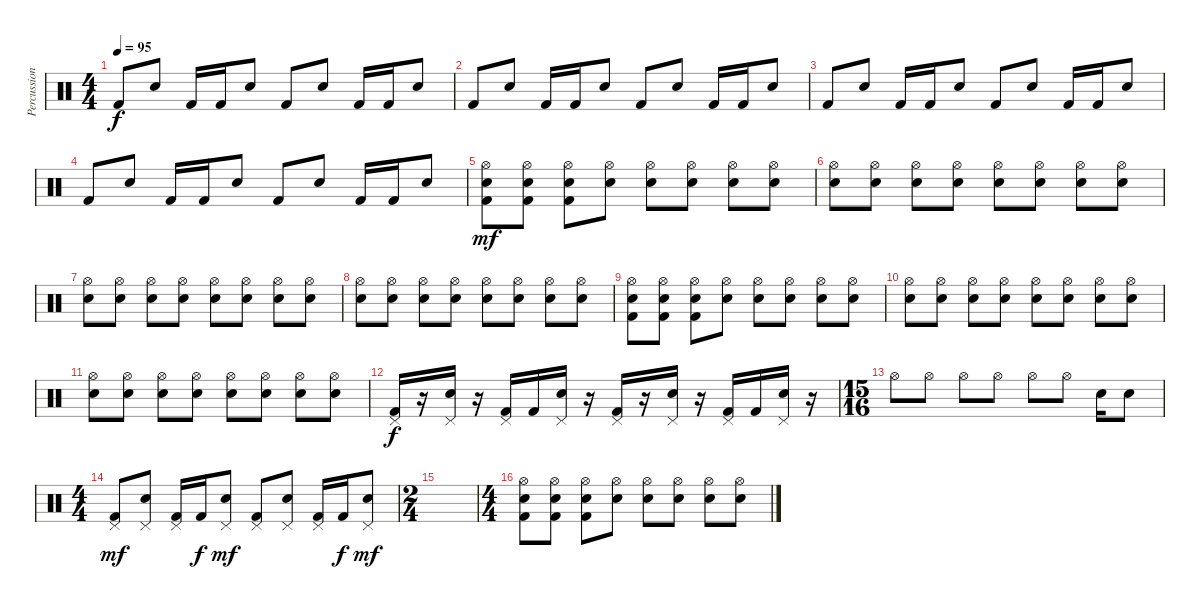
\track ("Percussion" "Percussion") {instrument percussion}
\staff {score}
\articulation defaults
\ts (4 4)
\tempo 95
\clef neutral
\ks c "Kick (hit) 2".8{dy f} "Electric Snare (hit)".8 "Kick (hit) 2".16 "Kick (hit) 2".16 "Electric Snare (hit)".8 "Kick (hit) 2".8 "Electric Snare (hit)".8 "Kick (hit) 2".16 "Kick (hit) 2".16 "Electric Snare (hit)".8
|
"Kick (hit) 2".8 "Electric Snare (hit)".8 "Kick (hit) 2".16 "Kick (hit) 2".16 "Electric Snare (hit)".8 "Kick (hit) 2".8 "Electric Snare (hit)".8 "Kick (hit) 2".16 "Kick (hit) 2".16 "Electric Snare (hit)".8 |
"Kick (hit) 2".8 "Electric Snare (hit)".8 "Kick (hit) 2".16 "Kick (hit) 2".16 "Electric Snare (hit)".8 "Kick (hit) 2".8 "Electric Snare (hit)".8 "Kick (hit) 2".16 "Kick (hit) 2".16 "Electric Snare (hit)".8 |
"Kick (hit) 2".8 "Electric Snare (hit)".8 "Kick (hit) 2".16 "Kick (hit) 2".16 "Electric Snare (hit)".8 "Kick (hit) 2".8 "Electric Snare (hit)".8 "Kick (hit) 2".16 "Kick (hit) 2".16 "Electric Snare (hit)".8 |
("Hi-Hat (open)" "Electric Snare (hit)" "Kick (hit) 2").8{dy mf} ("Hi-Hat (open)" "Electric Snare (hit)" "Kick (hit) 2").8 ("Hi-Hat (open)" "Electric Snare (hit)" "Kick (hit) 2").8 ("Hi-Hat (open)" "Electric Snare (hit)").8 ("Hi-Hat (open)" "Electric Snare (hit)").8 ("Hi-Hat (open)" "Electric Snare (hit)").8 ("Hi-Hat (open)" "Electric Snare (hit)").8 ("Hi-Hat (open)" "Electric Snare (hit)").8 |
("Hi-Hat (open)" "Electric Snare (hit)").8 ("Hi-Hat (open)" "Electric Snare (hit)").8 ("Hi-Hat (open)" "Electric Snare (hit)").8 ("Hi-Hat (open)" "Electric Snare (hit)").8 ("Hi-Hat (open)" "Electric Snare (hit)").8 ("Hi-Hat (open)" "Electric Snare (hit)").8 ("Hi-Hat (open)" "Electric Snare (hit)").8 ("Hi-Hat (open)" "Electric Snare (hit)").8 |
("Hi-Hat (open)" "Electric Snare (hit)").8 ("Hi-Hat (open)" "Electric Snare (hit)").8 ("Hi-Hat (open)" "Electric Snare (hit)").8 ("Hi-Hat (open)" "Electric Snare (hit)").8 ("Hi-Hat (open)" "Electric Snare (hit)").8 ("Hi-Hat (open)" "Electric Snare (hit)").8 ("Hi-Hat (open)" "Electric Snare (hit)").8 ("Hi-Hat (open)" "Electric Snare (hit)").8 |
("Hi-Hat (open)" "Electric Snare (hit)").8 ("Hi-Hat (open)" "Electric Snare (hit)").8 ("Hi-Hat (open)" "Electric Snare (hit)").8 ("Hi-Hat (open)" "Electric Snare (hit)").8 ("Hi-Hat (open)" "Electric Snare (hit)").8 ("Hi-Hat (open)" "Electric Snare (hit)").8 ("Hi-Hat (open)" "Electric Snare (hit)").8 ("Hi-Hat (open)" "Electric Snare (hit)").8 |
("Hi-Hat (open)" "Electric Snare (hit)" "Kick (hit) 2").8 ("Hi-Hat (open)" "Electric Snare (hit)" "Kick (hit) 2").8 ("Hi-Hat (open)" "Electric Snare (hit)" "Kick (hit) 2").8 ("Hi-Hat (open)" "Electric Snare (hit)").8 ("Hi-Hat (open)" "Electric Snare (hit)").8 ("Hi-Hat (open)" "Electric Snare (hit)").8 ("Hi-Hat (open)" "Electric Snare (hit)").8 ("Hi-Hat (open)" "Electric Snare (hit)").8 |
("Hi-Hat (open)" "Electric Snare (hit)").8 ("Hi-Hat (open)" "Electric Snare (hit)").8 ("Hi-Hat (open)" "Electric Snare (hit)").8 ("Hi-Hat (open)" "Electric Snare (hit)").8 ("Hi-Hat (open)" "Electric Snare (hit)").8 ("Hi-Hat (open)" "Electric Snare (hit)").8 ("Hi-Hat (open)" "Electric Snare (hit)").8 ("Hi-Hat (open)" "Electric Snare (hit)").8 |
("Hi-Hat (open)" "Electric Snare (hit)").8 ("Hi-Hat (open)" "Electric Snare (hit)").8 ("Hi-Hat (open)" "Electric Snare (hit)").8 ("Hi-Hat (open)" "Electric Snare (hit)").8 ("Hi-Hat (open)" "Electric Snare (hit)").8 ("Hi-Hat (open)" "Electric Snare (hit)").8 ("Hi-Hat (open)" "Electric Snare (hit)").8 ("Hi-Hat (open)" "Electric Snare (hit)").8 |
("Pedal Hi-Hat (hit)" "Kick (hit) 2").16{dy f} r.16 ("Pedal Hi-Hat (hit)" "Electric Snare (hit)").16 r.16 ("Pedal Hi-Hat (hit)" "Kick (hit) 2").16 "Kick (hit) 2".16 ("Pedal Hi-Hat (hit)" "Electric Snare (hit)").16 r.16 ("Pedal Hi-Hat (hit)" "Kick (hit) 2").16 r.16 ("Pedal Hi-Hat (hit)" "Electric Snare (hit)").16 r.16 ("Pedal Hi-Hat (hit)" "Kick (hit) 2").16 "Kick (hit) 2".16 ("Pedal Hi-Hat (hit)" "Electric Snare (hit)").16 r.16 |
\ts (15 16)
"Hi-Hat (open)".8 "Hi-Hat (open)".8 "Hi-Hat (open)".8 "Hi-Hat (open)".8 "Hi-Hat (open)".8 "Hi-Hat (open)".8 "Electric Snare (hit)".16 "Electric Snare (hit)".8 |
\ts (4 4)
("Pedal Hi-Hat (hit)" "Kick (hit) 2").8{dy mf} ("Pedal Hi-Hat (hit)" "Electric Snare (hit)").8 ("Pedal Hi-Hat (hit)" "Kick (hit) 2").16 "Kick (hit) 2".16{dy f} ("Pedal Hi-Hat (hit)" "Electric Snare (hit)").8{dy mf} ("Pedal Hi-Hat (hit)" "Kick (hit) 2").8 ("Pedal Hi-Hat (hit)" "Electric Snare (hit)").8 ("Pedal Hi-Hat (hit)" "Kick (hit) 2").16 "Kick (hit) 2".16{dy f} ("Pedal Hi-Hat (hit)" "Electric Snare (hit)").8{dy mf} |
\ts (2 4)
|
\ts (4 4)
("Hi-Hat (open)" "Electric Snare (hit)" "Kick (hit) 2").8 ("Hi-Hat (open)" "Electric Snare (hit)" "Kick (hit) 2").8 ("Hi-Hat (open)" "Electric Snare (hit)" "Kick (hit) 2").8 ("Hi-Hat (open)" "Electric Snare (hit)").8 ("Hi-Hat (open)" "Electric Snare (hit)").8 ("Hi-Hat (open)" "Electric Snare (hit)").8 ("Hi-Hat (open)" "Electric Snare (hit)").8 ("Hi-Hat (open)" "Electric Snare (hit)").8
